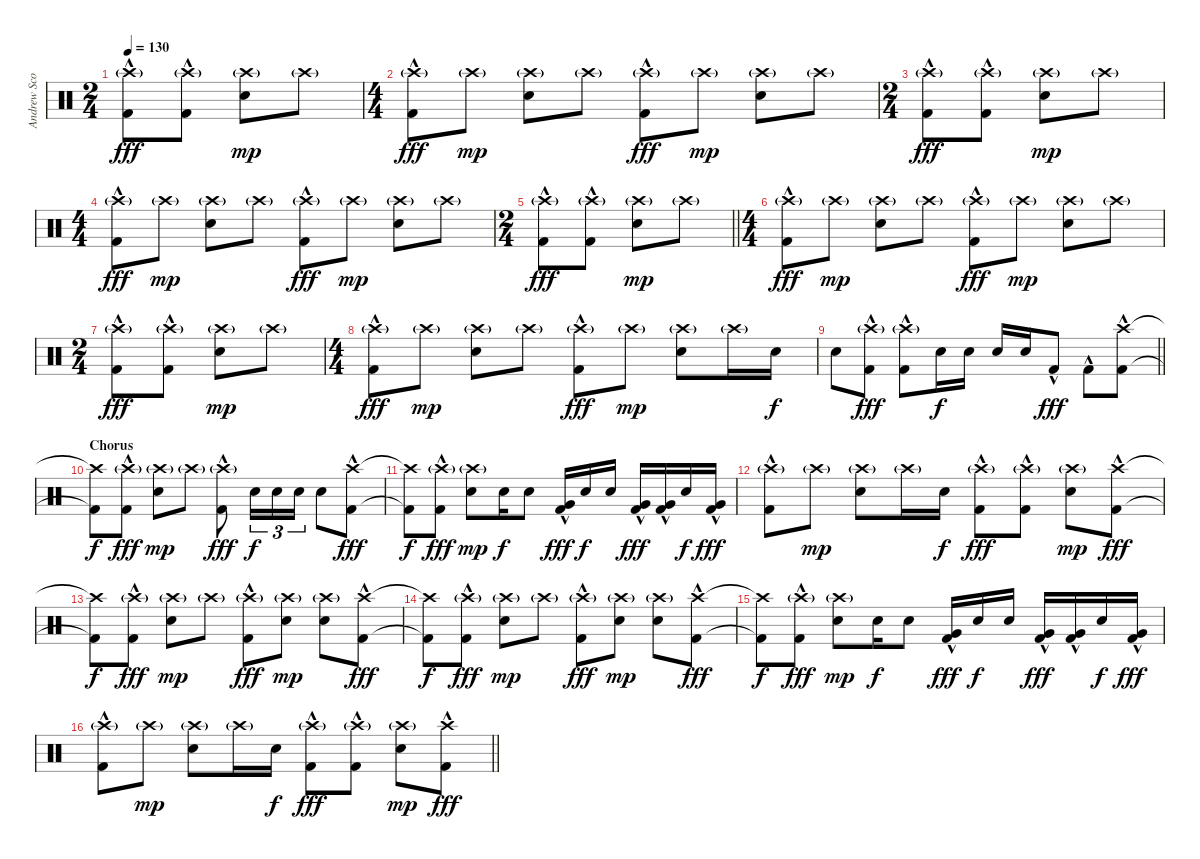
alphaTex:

\track ("Andrew Scott" "Andrew Sco") {instrument percussion}
\staff {score}
\articulation defaults
\ts (2 4)
\tempo 130
\clef neutral
\ks c
("Crash high (hit)"{g} "Kick (hit) 2"{hac}).8{dy fff} ("Crash high (hit)"{g} "Kick (hit) 2"{hac}).8 ("Crash high (hit)"{g} "Snare (hit) 2").8{dy mp} "Crash high (hit)"{g}.8 |
\ts (4 4)
("Crash high (hit)"{g} "Kick (hit) 2"{hac}).8{dy fff} "Crash high (hit)"{g}.8{dy mp} ("Crash high (hit)"{g} "Snare (hit) 2").8 "Crash high (hit)"{g}.8 ("Crash high (hit)"{g} "Kick (hit) 2"{hac}).8{dy fff} "Crash high (hit)"{g}.8{dy mp} ("Crash high (hit)"{g} "Snare (hit) 2").8 "Crash high (hit)"{g}.8 |
\ts (2 4)
("Crash high (hit)"{g} "Kick (hit) 2"{hac}).8{dy fff} ("Crash high (hit)"{g} "Kick (hit) 2"{hac}).8 ("Crash high (hit)"{g} "Snare (hit) 2").8{dy mp} "Crash high (hit)"{g}.8 |
\ts (4 4)
("Crash high (hit)"{g} "Kick (hit) 2"{hac}).8{dy fff} "Crash high (hit)"{g}.8{dy mp} ("Crash high (hit)"{g} "Snare (hit) 2").8 "Crash high (hit)"{g}.8 ("Crash high (hit)"{g} "Kick (hit) 2"{hac}).8{dy fff} "Crash high (hit)"{g}.8{dy mp} ("Crash high (hit)"{g} "Snare (hit) 2").8 "Crash high (hit)"{g}.8 |
\ts (2 4)
\barLineRight lightlight
("Crash high (hit)"{g} "Kick (hit) 2"{hac}).8{dy fff} ("Crash high (hit)"{g} "Kick (hit) 2"{hac}).8 ("Crash high (hit)"{g} "Snare (hit) 2").8{dy mp} "Crash high (hit)"{g}.8 |
\ts (4 4)
("Crash high (hit)"{g} "Kick (hit) 2"{hac}).8{dy fff} "Crash high (hit)"{g}.8{dy mp} ("Crash high (hit)"{g} "Snare (hit) 2").8 "Crash high (hit)"{g}.8 ("Crash high (hit)"{g} "Kick (hit) 2"{hac}).8{dy fff} "Crash high (hit)"{g}.8{dy mp} ("Crash high (hit)"{g} "Snare (hit) 2").8 "Crash high (hit)"{g}.8 |
\ts (2 4)
("Crash high (hit)"{g} "Kick (hit) 2"{hac}).8{dy fff} ("Crash high (hit)"{g} "Kick (hit) 2"{hac}).8 ("Crash high (hit)"{g} "Snare (hit) 2").8{dy mp} "Crash high (hit)"{g}.8 |
\ts (4 4)
("Crash high (hit)"{g} "Kick (hit) 2"{hac}).8{dy fff} "Crash high (hit)"{g}.8{dy mp} ("Crash high (hit)"{g} "Snare (hit) 2").8 "Crash high (hit)"{g}.8 ("Crash high (hit)"{g} "Kick (hit) 2"{hac}).8{dy fff} "Crash high (hit)"{g}.8{dy mp} ("Crash high (hit)"{g} "Snare (hit) 2").8 "Crash high (hit)"{g}.16 "Snare (hit) 2".16{dy f} |
\barLineRight lightlight "Snare (hit) 2".8
("Crash high (hit)"{g} "Kick (hit) 2"{hac}).8{dy fff} ("Crash high (hit)"{g} "Kick (hit) 2"{hac}).8 "Snare (hit) 2".16{dy f} "Snare (hit) 2".16 "Snare (hit) 2".16 "Snare (hit) 2".16 "Kick (hit) 2"{hac}.8{dy fff} "Kick (hit) 2"{hac}.8 ("Crash high (hit)" "Kick (hit) 2"{hac}).8 |
\section ("" "Chorus")
("Crash high (hit)"{t} "Kick (hit) 2"{t}).8{dy f} ("Crash high (hit)"{g} "Kick (hit) 2"{hac}).8{dy fff} ("Crash high (hit)"{g} "Snare (hit) 2").8{dy mp} "Crash high (hit)"{g}.8 ("Crash high (hit)"{g} "Kick (hit) 2"{hac}).8{dy fff} "Snare (hit) 2".16{tu (3 2) dy f} "Snare (hit) 2".16{tu (3 2)} "Snare (hit) 2".16{tu (3 2)} "Snare (hit) 2".8 ("Crash high (hit)" "Kick (hit) 2"{hac}).8{dy fff} |
("Crash high (hit)"{t} "Kick (hit) 2"{t}).8{dy f} ("Crash high (hit)"{g} "Kick (hit) 2"{hac}).8{dy fff} ("Crash high (hit)"{g} "Snare (hit) 2").8{dy mp} "Snare (hit) 2".16{dy f} "Snare (hit) 2".8 ("Very Low Tom (hit)"{hac} "Kick (hit) 2"{hac}).16{dy fff} "Snare (hit) 2".16{dy f} "Snare (hit) 2".16 ("Very Low Tom (hit)"{hac} "Kick (hit) 2"{hac}).16{dy fff} ("Very Low Tom (hit)"{hac} "Kick (hit) 2"{hac}).16 "Snare (hit) 2".16{dy f} ("Very Low Tom (hit)"{hac} "Kick (hit) 2"{hac}).16{dy fff} |
("Crash high (hit)"{g} "Kick (hit) 2"{hac}).8 "Crash high (hit)"{g}.8{dy mp} ("Crash high (hit)"{g} "Snare (hit) 2").8 "Crash high (hit)"{g}.16 "Snare (hit) 2".16{dy f} ("Crash high (hit)"{g} "Kick (hit) 2"{hac}).8{dy fff} ("Crash high (hit)"{g} "Kick (hit) 2"{hac}).8 ("Crash high (hit)"{g} "Snare (hit) 2").8{dy mp} ("Crash high (hit)" "Kick (hit) 2"{hac}).8{dy fff} |
("Crash high (hit)"{t} "Kick (hit) 2"{t}).8{dy f} ("Crash high (hit)"{g} "Kick (hit) 2"{hac}).8{dy fff} ("Crash high (hit)"{g} "Snare (hit) 2").8{dy mp} "Crash high (hit)"{g}.8 ("Crash high (hit)"{g} "Kick (hit) 2"{hac}).8{dy fff} ("Crash high (hit)"{g} "Snare (hit) 2").8{dy mp} ("Crash high (hit)"{g} "Snare (hit) 2").8 ("Crash high (hit)" "Kick (hit) 2"{hac}).8{dy fff} |
("Crash high (hit)"{t} "Kick (hit) 2"{t}).8{dy f} ("Crash high (hit)"{g} "Kick (hit) 2"{hac}).8{dy fff} ("Crash high (hit)"{g} "Snare (hit) 2").8{dy mp} "Crash high (hit)"{g}.8 ("Crash high (hit)"{g} "Kick (hit) 2"{hac}).8{dy fff} ("Crash high (hit)"{g} "Snare (hit) 2").8{dy mp} ("Crash high (hit)"{g} "Snare (hit) 2").8 ("Crash high (hit)" "Kick (hit) 2"{hac}).8{dy fff} |
("Crash high (hit)"{t} "Kick (hit) 2"{t}).8{dy f} ("Crash high (hit)"{g} "Kick (hit) 2"{hac}).8{dy fff} ("Crash high (hit)"{g} "Snare (hit) 2").8{dy mp} "Snare (hit) 2".16{dy f} "Snare (hit) 2".8 ("Very Low Tom (hit)"{hac} "Kick (hit) 2"{hac}).16{dy fff} "Snare (hit) 2".16{dy f} "Snare (hit) 2".16 ("Very Low Tom (hit)"{hac} "Kick (hit) 2"{hac}).16{dy fff} ("Very Low Tom (hit)"{hac} "Kick (hit) 2"{hac}).16 "Snare (hit) 2".16{dy f} ("Very Low Tom (hit)"{hac} "Kick (hit) 2"{hac}).16{dy fff} |
\barLineRight lightlight
("Crash high (hit)"{g} "Kick (hit) 2"{hac}).8 "Crash high (hit)"{g}.8{dy mp} ("Crash high (hit)"{g} "Snare (hit) 2").8 "Crash high (hit)"{g}.16 "Snare (hit) 2".16{dy f} ("Crash high (hit)"{g} "Kick (hit) 2"{hac}).8{dy fff} ("Crash high (hit)"{g} "Kick (hit) 2"{hac}).8 ("Crash high (hit)"{g} "Snare (hit) 2").8{dy mp} ("Crash high (hit)" "Kick (hit) 2"{hac}).8{dy fff}
